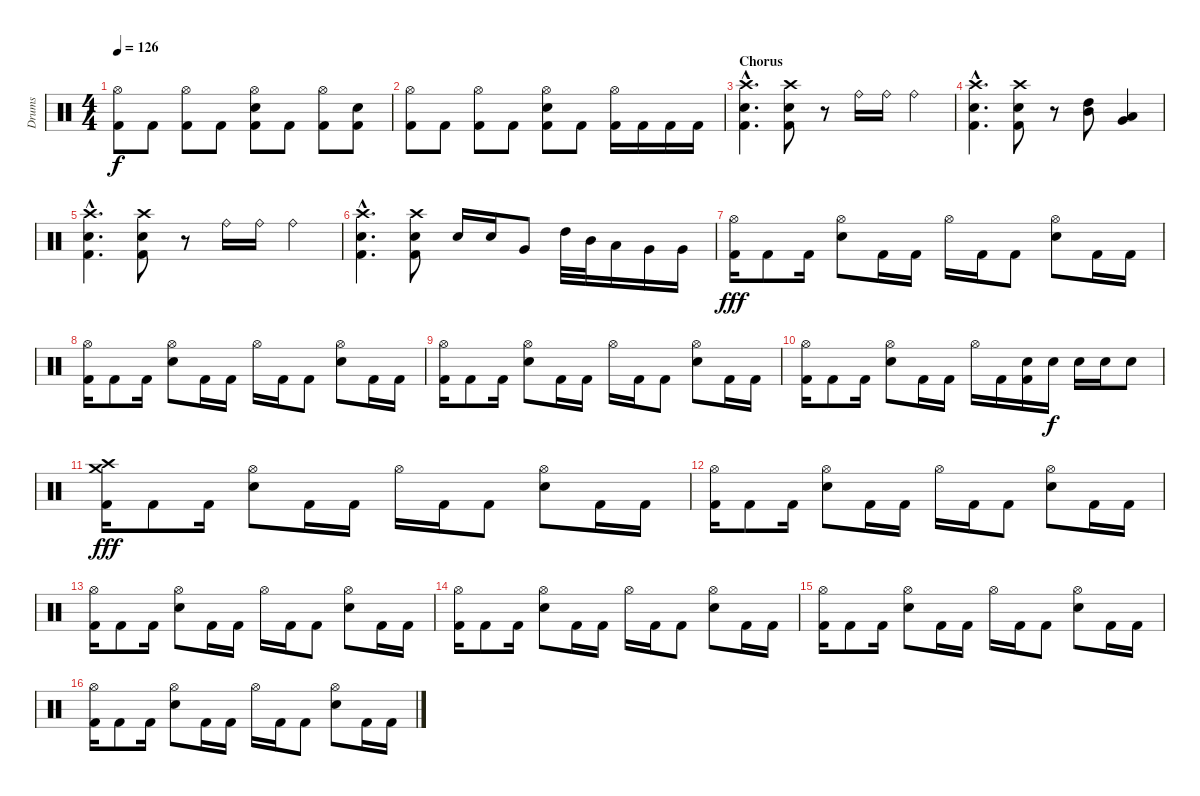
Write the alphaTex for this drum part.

\track ("Drums" "Drums") {instrument percussion}
\staff {score}
\articulation defaults
\ts (4 4)
\tempo 126
\clef neutral
\ks c
("Hi-Hat (open)" "Kick (hit) 2").8{dy f} "Kick (hit) 2".8 ("Hi-Hat (open)" "Kick (hit) 2").8 "Kick (hit) 2".8 ("Hi-Hat (open)" "Electric Snare (hit)" "Kick (hit) 2").8 "Kick (hit) 2".8 ("Hi-Hat (open)" "Kick (hit) 2").8 ("Electric Snare (hit)" "Kick (hit) 2").8 |
("Hi-Hat (open)" "Kick (hit) 2").8 "Kick (hit) 2".8 ("Hi-Hat (open)" "Kick (hit) 2").8 "Kick (hit) 2".8 ("Hi-Hat (open)" "Electric Snare (hit)" "Kick (hit) 2").8 "Kick (hit) 2".8 ("Hi-Hat (open)" "Kick (hit) 2").16 "Kick (hit) 2".16 "Kick (hit) 2".16 "Kick (hit) 2".16 |
\section ("" "Chorus")
("Crash high (hit)"{hac} "Electric Snare (hit)"{hac} "Kick (hit) 2"{hac}).4{d} ("Crash high (hit)" "Electric Snare (hit)" "Kick (hit) 2").8 r.8 "Ride (bell)".16 "Ride (bell)".16 "Ride (bell)".4 |
("Crash high (hit)"{hac} "Electric Snare (hit)"{hac} "Kick (hit) 2"{hac}).4{d} ("Crash high (hit)" "Electric Snare (hit)" "Kick (hit) 2").8 r.8 ("High Tom (hit)" "Mid Tom (hit)").8 ("Low Tom (hit)" "Very Low Tom (hit)").4 |
("Crash high (hit)"{hac} "Electric Snare (hit)"{hac} "Kick (hit) 2"{hac}).4{d} ("Crash high (hit)" "Electric Snare (hit)" "Kick (hit) 2").8 r.8 "Ride (bell)".16 "Ride (bell)".16 "Ride (bell)".4 |
("Crash high (hit)"{hac} "Electric Snare (hit)"{hac} "Kick (hit) 2"{hac}).4{d} ("Crash high (hit)" "Electric Snare (hit)" "Kick (hit) 2").8 "Electric Snare (hit)".16 "Electric Snare (hit)".16 "Very Low Tom (hit)".8 "High Tom (hit)".32 "Mid Tom (hit)".32 "Low Tom (hit)".16 "Very Low Tom (hit)".16 "Very Low Tom (hit)".16 |
("Hi-Hat (open)" "Kick (hit) 2").16{dy fff} "Kick (hit) 2".8 "Kick (hit) 2".16 ("Hi-Hat (open)" "Electric Snare (hit)").8 "Kick (hit) 2".16 "Kick (hit) 2".16 "Hi-Hat (open)".16 "Kick (hit) 2".16 "Kick (hit) 2".8 ("Hi-Hat (open)" "Electric Snare (hit)").8 "Kick (hit) 2".16 "Kick (hit) 2".16 |
("Hi-Hat (open)" "Kick (hit) 2").16 "Kick (hit) 2".8 "Kick (hit) 2".16 ("Hi-Hat (open)" "Electric Snare (hit)").8 "Kick (hit) 2".16 "Kick (hit) 2".16 "Hi-Hat (open)".16 "Kick (hit) 2".16 "Kick (hit) 2".8 ("Hi-Hat (open)" "Electric Snare (hit)").8 "Kick (hit) 2".16 "Kick (hit) 2".16 |
("Hi-Hat (open)" "Kick (hit) 2").16 "Kick (hit) 2".8 "Kick (hit) 2".16 ("Hi-Hat (open)" "Electric Snare (hit)").8 "Kick (hit) 2".16 "Kick (hit) 2".16 "Hi-Hat (open)".16 "Kick (hit) 2".16 "Kick (hit) 2".8 ("Hi-Hat (open)" "Electric Snare (hit)").8 "Kick (hit) 2".16 "Kick (hit) 2".16 |
("Hi-Hat (open)" "Kick (hit) 2").16 "Kick (hit) 2".8 "Kick (hit) 2".16 ("Hi-Hat (open)" "Electric Snare (hit)").8 "Kick (hit) 2".16 "Kick (hit) 2".16 "Hi-Hat (open)".16 "Kick (hit) 2".16 ("Electric Snare (hit)" "Kick (hit) 2").16 "Electric Snare (hit)".16{dy f} "Electric Snare (hit)".16 "Electric Snare (hit)".16 "Electric Snare (hit)".8 |
("Crash high (hit)" "Crash medium (hit)" "Kick (hit) 2").16{dy fff} "Kick (hit) 2".8 "Kick (hit) 2".16 ("Hi-Hat (open)" "Electric Snare (hit)").8 "Kick (hit) 2".16 "Kick (hit) 2".16 "Hi-Hat (open)".16 "Kick (hit) 2".16 "Kick (hit) 2".8 ("Hi-Hat (open)" "Electric Snare (hit)").8 "Kick (hit) 2".16 "Kick (hit) 2".16 |
("Hi-Hat (open)" "Kick (hit) 2").16 "Kick (hit) 2".8 "Kick (hit) 2".16 ("Hi-Hat (open)" "Electric Snare (hit)").8 "Kick (hit) 2".16 "Kick (hit) 2".16 "Hi-Hat (open)".16 "Kick (hit) 2".16 "Kick (hit) 2".8 ("Hi-Hat (open)" "Electric Snare (hit)").8 "Kick (hit) 2".16 "Kick (hit) 2".16 |
("Hi-Hat (open)" "Kick (hit) 2").16 "Kick (hit) 2".8 "Kick (hit) 2".16 ("Hi-Hat (open)" "Electric Snare (hit)").8 "Kick (hit) 2".16 "Kick (hit) 2".16 "Hi-Hat (open)".16 "Kick (hit) 2".16 "Kick (hit) 2".8 ("Hi-Hat (open)" "Electric Snare (hit)").8 "Kick (hit) 2".16 "Kick (hit) 2".16 |
("Hi-Hat (open)" "Kick (hit) 2").16 "Kick (hit) 2".8 "Kick (hit) 2".16 ("Hi-Hat (open)" "Electric Snare (hit)").8 "Kick (hit) 2".16 "Kick (hit) 2".16 "Hi-Hat (open)".16 "Kick (hit) 2".16 "Kick (hit) 2".8 ("Hi-Hat (open)" "Electric Snare (hit)").8 "Kick (hit) 2".16 "Kick (hit) 2".16 |
("Hi-Hat (open)" "Kick (hit) 2").16 "Kick (hit) 2".8 "Kick (hit) 2".16 ("Hi-Hat (open)" "Electric Snare (hit)").8 "Kick (hit) 2".16 "Kick (hit) 2".16 "Hi-Hat (open)".16 "Kick (hit) 2".16 "Kick (hit) 2".8 ("Hi-Hat (open)" "Electric Snare (hit)").8 "Kick (hit) 2".16 "Kick (hit) 2".16 |
("Hi-Hat (open)" "Kick (hit) 2").16 "Kick (hit) 2".8 "Kick (hit) 2".16 ("Hi-Hat (open)" "Electric Snare (hit)").8 "Kick (hit) 2".16 "Kick (hit) 2".16 "Hi-Hat (open)".16 "Kick (hit) 2".16 "Kick (hit) 2".8 ("Hi-Hat (open)" "Electric Snare (hit)").8 "Kick (hit) 2".16 "Kick (hit) 2".16
